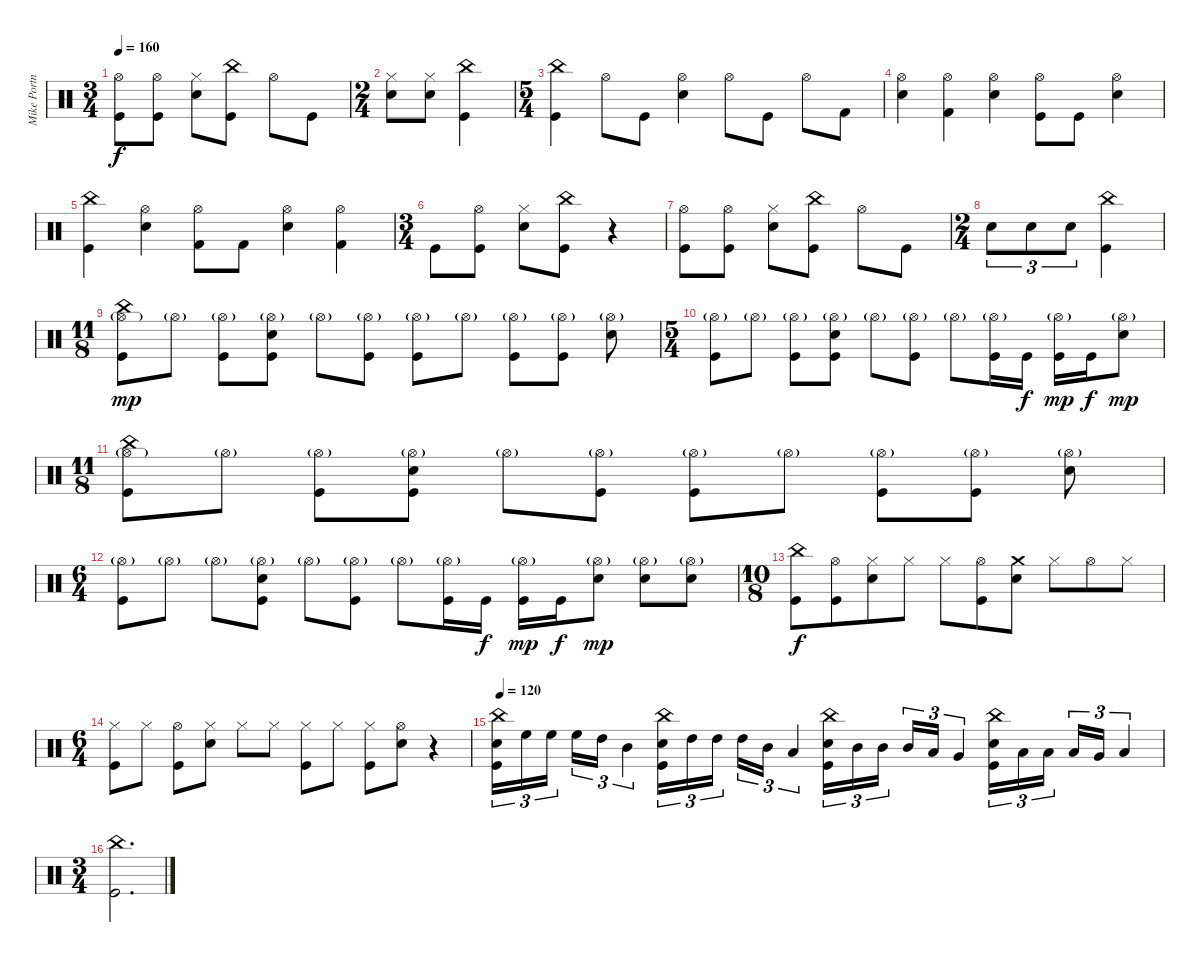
\track ("Mike Portnoy Drums" "Mike Portn") {instrument percussion}
\staff {score}
\articulation defaults
\ts (3 4)
\tempo 160
\clef neutral
\ks c
("Kick (hit)" "Hi-Hat (open)").8{dy f} ("Kick (hit)" "Hi-Hat (open)").8 ("Snare (hit) 2" "Hi-Hat (closed)").8 ("Kick (hit)" "China (hit)").8 "Hi-Hat (open)".8 "Kick (hit)".8 |
\ts (2 4)
("Snare (hit) 2" "Hi-Hat (closed)").8 ("Snare (hit) 2" "Hi-Hat (closed)").8 ("Kick (hit)" "China (hit)").4 |
\ts (5 4)
("Kick (hit)" "China (hit)").4 "Hi-Hat (open)".8 "Kick (hit)".8 ("Snare (hit) 2" "Hi-Hat (open)").4 "Hi-Hat (open)".8 "Kick (hit)".8 "Hi-Hat (open)".8 "Kick (hit) 2".8 |
("Hi-Hat (open)" "Snare (hit) 2").4 ("Hi-Hat (open)" "Kick (hit) 2").4 ("Snare (hit) 2" "Hi-Hat (open)").4 ("Kick (hit)" "Hi-Hat (open)").8 "Kick (hit)".8 ("Hi-Hat (open)" "Snare (hit) 2").4 |
("Kick (hit)" "China (hit)").4 ("Snare (hit) 2" "Hi-Hat (open)").4 ("Kick (hit) 2" "Hi-Hat (open)").8 "Kick (hit) 2".8 ("Snare (hit) 2" "Hi-Hat (open)").4 ("Kick (hit) 2" "Hi-Hat (open)").4 |
\ts (3 4)
"Kick (hit)".8 ("Kick (hit)" "Hi-Hat (open)").8 ("Snare (hit) 2" "Hi-Hat (closed)").8 ("Kick (hit)" "China (hit)").8 r.4 |
("Kick (hit)" "Hi-Hat (open)").8 ("Kick (hit)" "Hi-Hat (open)").8 ("Snare (hit) 2" "Hi-Hat (closed)").8 ("Kick (hit)" "China (hit)").8 "Hi-Hat (open)".8 "Kick (hit)".8 |
\ts (2 4)
"Snare (hit) 2".8{tu (3 2)} "Snare (hit) 2".8{tu (3 2)} "Snare (hit) 2".8{tu (3 2)} ("Kick (hit)" "China (hit)").4 |
\ts (11 8)
("Kick (hit)" "Hi-Hat (open)"{g} "China (hit)").8{dy mp} "Hi-Hat (open)"{g}.8 ("Kick (hit)" "Hi-Hat (open)"{g}).8 ("Kick (hit)" "Snare (hit) 2" "Hi-Hat (open)"{g}).8 "Hi-Hat (open)"{g}.8 ("Kick (hit)" "Hi-Hat (open)"{g}).8 ("Kick (hit)" "Hi-Hat (open)"{g}).8 "Hi-Hat (open)"{g}.8 ("Kick (hit)" "Hi-Hat (open)"{g}).8 ("Kick (hit)" "Hi-Hat (open)"{g}).8 ("Snare (hit) 2" "Hi-Hat (open)"{g}).8 |
\ts (5 4)
("Kick (hit)" "Hi-Hat (open)"{g}).8 "Hi-Hat (open)"{g}.8 ("Kick (hit)" "Hi-Hat (open)"{g}).8 ("Kick (hit)" "Snare (hit) 2" "Hi-Hat (open)"{g}).8 "Hi-Hat (open)"{g}.8 ("Kick (hit)" "Hi-Hat (open)"{g}).8 "Hi-Hat (open)"{g}.8 ("Kick (hit)" "Hi-Hat (open)"{g}).16 "Kick (hit)".16{dy f} ("Kick (hit)" "Hi-Hat (open)"{g}).16{dy mp} "Kick (hit)".16{dy f} ("Snare (hit) 2" "Hi-Hat (open)"{g}).8{dy mp} |
\ts (11 8)
("Kick (hit)" "Hi-Hat (open)"{g} "China (hit)").8 "Hi-Hat (open)"{g}.8 ("Kick (hit)" "Hi-Hat (open)"{g}).8 ("Kick (hit)" "Snare (hit) 2" "Hi-Hat (open)"{g}).8 "Hi-Hat (open)"{g}.8 ("Kick (hit)" "Hi-Hat (open)"{g}).8 ("Kick (hit)" "Hi-Hat (open)"{g}).8 "Hi-Hat (open)"{g}.8 ("Kick (hit)" "Hi-Hat (open)"{g}).8 ("Kick (hit)" "Hi-Hat (open)"{g}).8 ("Snare (hit) 2" "Hi-Hat (open)"{g}).8 |
\ts (6 4)
("Kick (hit)" "Hi-Hat (open)"{g}).8 "Hi-Hat (open)"{g}.8 "Hi-Hat (open)"{g}.8 ("Kick (hit)" "Snare (hit) 2" "Hi-Hat (open)"{g}).8 "Hi-Hat (open)"{g}.8 ("Kick (hit)" "Hi-Hat (open)"{g}).8 "Hi-Hat (open)"{g}.8 ("Kick (hit)" "Hi-Hat (open)"{g}).16 "Kick (hit)".16{dy f} ("Kick (hit)" "Hi-Hat (open)"{g}).16{dy mp} "Kick (hit)".16{dy f} ("Snare (hit) 2" "Hi-Hat (open)"{g}).8{dy mp} ("Snare (hit) 2" "Hi-Hat (open)"{g}).8 ("Snare (hit) 2" "Hi-Hat (open)"{g}).8 |
\ts (10 8)
("Kick (hit)" "China (hit)").8{dy f} ("Kick (hit)" "Hi-Hat (open)").8 ("Snare (hit) 2" "Hi-Hat (closed)").8 "Hi-Hat (closed)".8 "Hi-Hat (closed)".8 ("Kick (hit)" "Hi-Hat (open)").8 ("Snare (hit) 2" "Crash medium (hit)").8 "Hi-Hat (closed)".8 "Hi-Hat (open)".8 "Hi-Hat (closed)".8 |
\ts (6 4)
("Kick (hit)" "Hi-Hat (closed)").8 "Hi-Hat (closed)".8 ("Kick (hit)" "Hi-Hat (open)").8 ("Snare (hit) 2" "Hi-Hat (closed)").8 "Hi-Hat (closed)".8 "Hi-Hat (closed)".8 ("Kick (hit)" "Hi-Hat (closed)").8 "Hi-Hat (closed)".8 ("Kick (hit)" "Hi-Hat (closed)").8 ("Snare (hit) 2" "Hi-Hat (open)").8 r.4 |
\tempo 120
("Kick (hit)" "Snare (hit) 2" "China (hit)").16{tu (3 2)} "High Floor Tom (hit)".16{tu (3 2)} "High Floor Tom (hit)".16{tu (3 2) beam splitsecondary} "High Floor Tom (hit)".16{tu (3 2)} "High Tom (hit)".16{tu (3 2)} "Mid Tom (hit)".4{tu (3 2)} ("Kick (hit)" "Snare (hit) 2" "China (hit)").16{tu (3 2)} "High Tom (hit)".16{tu (3 2)} "High Tom (hit)".16{tu (3 2) beam splitsecondary} "High Tom (hit)".16{tu (3 2)} "Mid Tom (hit)".16{tu (3 2)} "Low Tom (hit)".4{tu (3 2)} ("Kick (hit)" "Snare (hit) 2" "China (hit)").16{tu (3 2)} "Mid Tom (hit)".16{tu (3 2)} "Mid Tom (hit)".16{tu (3 2) beam splitsecondary} "Mid Tom (hit)".16{tu (3 2)} "Low Tom (hit)".16{tu (3 2)} "Very Low Tom (hit)".4{tu (3 2)} ("Kick (hit)" "Snare (hit) 2" "China (hit)").16{tu (3 2)} "Low Tom (hit)".16{tu (3 2)} "Low Tom (hit)".16{tu (3 2) beam splitsecondary} "Low Tom (hit)".16{tu (3 2)} "Very Low Tom (hit)".16{tu (3 2)} "Low Floor Tom (hit)".4{tu (3 2)} |
\ts (3 4)
("Kick (hit)" "China (hit)").2{d}
